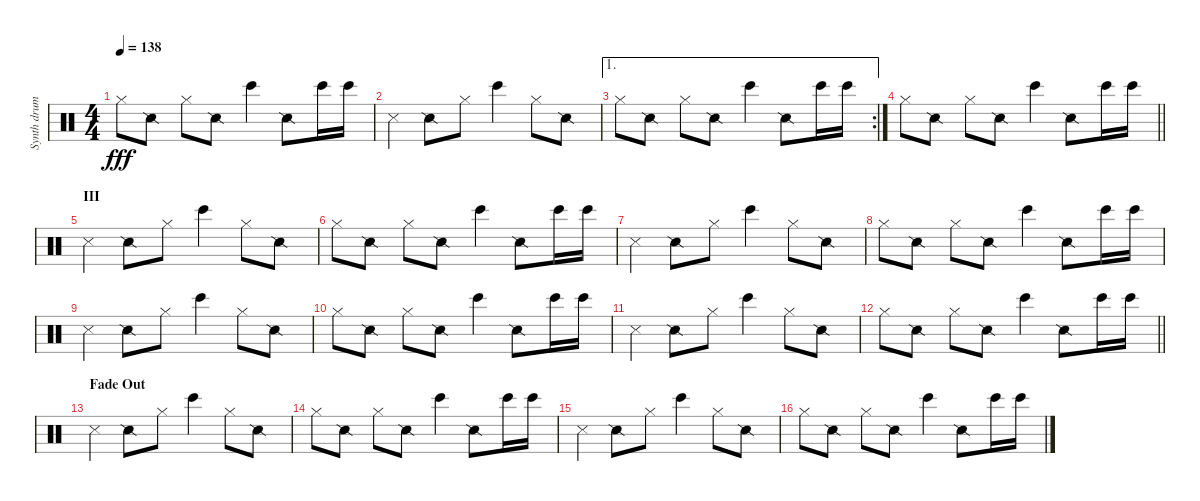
\track ("Synth drums" "Synth drum") {instrument percussion}
\staff {score}
\articulation defaults
\ts (4 4)
\tempo 138
\clef neutral
\ks c "Hi-Hat (closed)".8{dy fff} "Snare (side stick) 2".8 "Hi-Hat (closed)".8 "Snare (side stick) 2".8 "Bongo High (hit)".4 "Snare (side stick) 2".8 "Bongo High (hit)".16 "Bongo High (hit)".16
|
"Metronome (hit)".4 "Snare (side stick) 2".8 "Hi-Hat (closed)".8 "Bongo High (hit)".4 "Hi-Hat (closed)".8 "Snare (side stick) 2".8 |
\ae 1
\rc 2 "Hi-Hat (closed)".8 "Snare (side stick) 2".8 "Hi-Hat (closed)".8 "Snare (side stick) 2".8 "Bongo High (hit)".4 "Snare (side stick) 2".8 "Bongo High (hit)".16 "Bongo High (hit)".16
|
\barLineRight lightlight "Hi-Hat (closed)".8 "Snare (side stick) 2".8 "Hi-Hat (closed)".8 "Snare (side stick) 2".8 "Bongo High (hit)".4 "Snare (side stick) 2".8 "Bongo High (hit)".16 "Bongo High (hit)".16
|
\section ("" "III")
"Metronome (hit)".4{volume 12} "Snare (side stick) 2".8 "Hi-Hat (closed)".8 "Bongo High (hit)".4 "Hi-Hat (closed)".8 "Snare (side stick) 2".8 |
"Hi-Hat (closed)".8 "Snare (side stick) 2".8 "Hi-Hat (closed)".8 "Snare (side stick) 2".8 "Bongo High (hit)".4 "Snare (side stick) 2".8 "Bongo High (hit)".16 "Bongo High (hit)".16 |
"Metronome (hit)".4 "Snare (side stick) 2".8 "Hi-Hat (closed)".8 "Bongo High (hit)".4 "Hi-Hat (closed)".8 "Snare (side stick) 2".8 |
"Hi-Hat (closed)".8 "Snare (side stick) 2".8 "Hi-Hat (closed)".8 "Snare (side stick) 2".8 "Bongo High (hit)".4 "Snare (side stick) 2".8 "Bongo High (hit)".16 "Bongo High (hit)".16 |
"Metronome (hit)".4 "Snare (side stick) 2".8 "Hi-Hat (closed)".8 "Bongo High (hit)".4 "Hi-Hat (closed)".8 "Snare (side stick) 2".8 |
"Hi-Hat (closed)".8 "Snare (side stick) 2".8 "Hi-Hat (closed)".8 "Snare (side stick) 2".8 "Bongo High (hit)".4 "Snare (side stick) 2".8 "Bongo High (hit)".16 "Bongo High (hit)".16 |
"Metronome (hit)".4 "Snare (side stick) 2".8 "Hi-Hat (closed)".8 "Bongo High (hit)".4 "Hi-Hat (closed)".8 "Snare (side stick) 2".8 |
\barLineRight lightlight "Hi-Hat (closed)".8 "Snare (side stick) 2".8 "Hi-Hat (closed)".8 "Snare (side stick) 2".8 "Bongo High (hit)".4 "Snare (side stick) 2".8 "Bongo High (hit)".16 "Bongo High (hit)".16
|
\section ("" "Fade Out")
"Metronome (hit)".4{volume 10} "Snare (side stick) 2".8 "Hi-Hat (closed)".8 "Bongo High (hit)".4 "Hi-Hat (closed)".8 "Snare (side stick) 2".8 |
"Hi-Hat (closed)".8 "Snare (side stick) 2".8 "Hi-Hat (closed)".8 "Snare (side stick) 2".8 "Bongo High (hit)".4 "Snare (side stick) 2".8 "Bongo High (hit)".16 "Bongo High (hit)".16 |
"Metronome (hit)".4 "Snare (side stick) 2".8 "Hi-Hat (closed)".8 "Bongo High (hit)".4 "Hi-Hat (closed)".8 "Snare (side stick) 2".8 |
"Hi-Hat (closed)".8 "Snare (side stick) 2".8 "Hi-Hat (closed)".8 "Snare (side stick) 2".8 "Bongo High (hit)".4 "Snare (side stick) 2".8 "Bongo High (hit)".16 "Bongo High (hit)".16
